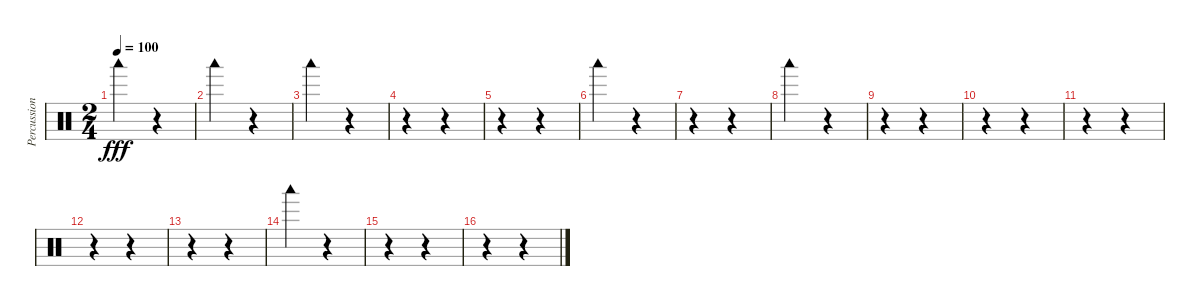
\track ("Percussion" "Percussion") {instrument percussion}
\staff {score}
\articulation defaults
\ts (2 4)
\tempo 100
\clef neutral
\ks c "Woodblock low (hit)".4{dy fff}
r.4 |
"Woodblock low (hit)".4 r.4 |
"Woodblock low (hit)".4 r.4 |
r.4 r.4 |
r.4 r.4 |
"Woodblock low (hit)".4 r.4 |
r.4 r.4 |
"Woodblock low (hit)".4 r.4 |
r.4 r.4 |
r.4 r.4 |
r.4 r.4 |
r.4 r.4 |
r.4 r.4 |
"Woodblock low (hit)".4 r.4 |
r.4 r.4 |
r.4 r.4
